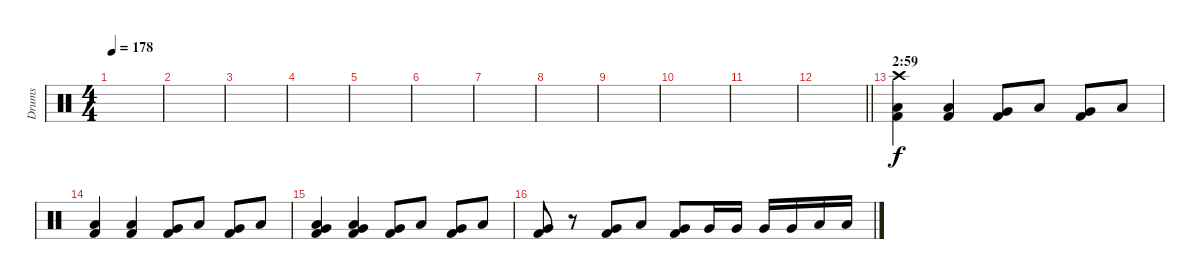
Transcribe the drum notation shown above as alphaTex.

\track ("Drums" "Drums") {instrument percussion}
\staff {score}
\articulation defaults
\ts (4 4)
\tempo 178
\clef neutral
\ks c
|
|
|
|
|
|
|
|
|
|
|
\barLineRight lightlight
|
\section ("" "2:59")
("Crash high (hit)" "Low Floor Tom (hit)" "Kick (hit) 2").4 ("Low Floor Tom (hit)" "Kick (hit) 2").4 ("Very Low Tom (hit)" "Kick (hit) 2").8 "Low Floor Tom (hit)".8 ("Very Low Tom (hit)" "Kick (hit) 2").8 "Low Floor Tom (hit)".8 |
("Low Floor Tom (hit)" "Kick (hit) 2").4 ("Low Floor Tom (hit)" "Kick (hit) 2").4 ("Very Low Tom (hit)" "Kick (hit) 2").8 "Low Floor Tom (hit)".8 ("Very Low Tom (hit)" "Kick (hit) 2").8 "Low Floor Tom (hit)".8 |
("Low Floor Tom (hit)" "Very Low Tom (hit)" "Kick (hit) 2").4 ("Low Floor Tom (hit)" "Very Low Tom (hit)" "Kick (hit) 2").4 ("Very Low Tom (hit)" "Kick (hit) 2").8 "Low Floor Tom (hit)".8 ("Very Low Tom (hit)" "Kick (hit) 2").8 "Low Floor Tom (hit)".8 |
("Very Low Tom (hit)" "Kick (hit) 2").8 r.8 ("Very Low Tom (hit)" "Kick (hit) 2").8 "Low Floor Tom (hit)".8 ("Very Low Tom (hit)" "Kick (hit) 2").8 "Very Low Tom (hit)".16 "Very Low Tom (hit)".16 "Very Low Tom (hit)".16 "Very Low Tom (hit)".16 "Low Floor Tom (hit)".16 "Low Floor Tom (hit)".16
